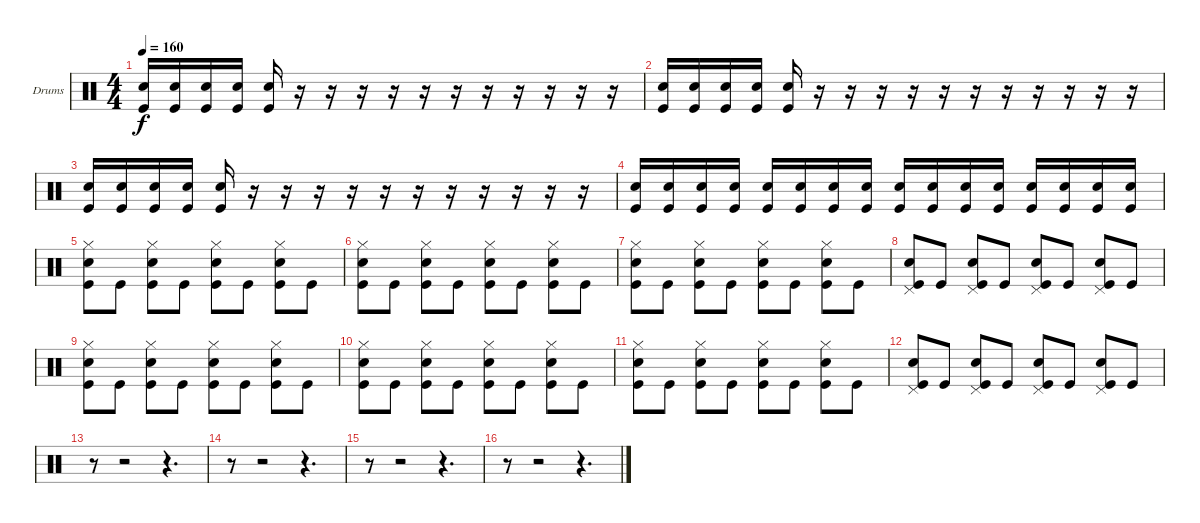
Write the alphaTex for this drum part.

\defaultSystemsLayout 4
\bracketExtendMode groupsimilarinstruments
\firstSystemTrackNameOrientation horizontal
\otherSystemsTrackNameOrientation horizontal
\track ("Drumkit" "Drums") {solo instrument percussion}
\staff {score}
\articulation defaults
\ts (4 4)
\tempo 160
\clef neutral
\scale
0.472222
\ks c
("Snare (hit) 2" "Kick (hit)").16{dy f} ("Snare (hit) 2" "Kick (hit)").16 ("Snare (hit) 2" "Kick (hit)").16 ("Snare (hit) 2" "Kick (hit)").16 ("Snare (hit) 2" "Kick (hit)").16 r.16 r.16 r.16 r.16 r.16 r.16 r.16 r.16 r.16 r.16 r.16 |
\scale
0.263889 ("Snare (hit) 2" "Kick (hit)").16 ("Snare (hit) 2" "Kick (hit)").16 ("Snare (hit) 2" "Kick (hit)").16 ("Snare (hit) 2" "Kick (hit)").16 ("Snare (hit) 2" "Kick (hit)").16 r.16 r.16 r.16 r.16 r.16 r.16 r.16 r.16 r.16 r.16 r.16 |
\scale
0.263889 ("Snare (hit) 2" "Kick (hit)").16 ("Snare (hit) 2" "Kick (hit)").16 ("Snare (hit) 2" "Kick (hit)").16 ("Snare (hit) 2" "Kick (hit)").16 ("Snare (hit) 2" "Kick (hit)").16 r.16 r.16 r.16 r.16 r.16 r.16 r.16 r.16 r.16 r.16 r.16 |
\scale
0.333333 ("Snare (hit) 2" "Kick (hit)").16 ("Snare (hit) 2" "Kick (hit)").16 ("Snare (hit) 2" "Kick (hit)").16 ("Snare (hit) 2" "Kick (hit)").16 ("Snare (hit) 2" "Kick (hit)").16 ("Snare (hit) 2" "Kick (hit)").16 ("Snare (hit) 2" "Kick (hit)").16 ("Snare (hit) 2" "Kick (hit)").16 ("Snare (hit) 2" "Kick (hit)").16 ("Snare (hit) 2" "Kick (hit)").16 ("Snare (hit) 2" "Kick (hit)").16 ("Snare (hit) 2" "Kick (hit)").16 ("Snare (hit) 2" "Kick (hit)").16 ("Snare (hit) 2" "Kick (hit)").16 ("Snare (hit) 2" "Kick (hit)").16 ("Snare (hit) 2" "Kick (hit)").16 |
\scale
0.333333 ("Hi-Hat (closed)" "Snare (hit) 2" "Kick (hit)").8 "Kick (hit)".8 ("Hi-Hat (closed)" "Snare (hit) 2" "Kick (hit)").8 "Kick (hit)".8 ("Hi-Hat (closed)" "Snare (hit) 2" "Kick (hit)").8 "Kick (hit)".8 ("Hi-Hat (closed)" "Snare (hit) 2" "Kick (hit)").8 "Kick (hit)".8 |
\scale
0.333333 ("Hi-Hat (closed)" "Snare (hit) 2" "Kick (hit)").8 "Kick (hit)".8 ("Hi-Hat (closed)" "Snare (hit) 2" "Kick (hit)").8 "Kick (hit)".8 ("Hi-Hat (closed)" "Snare (hit) 2" "Kick (hit)").8 "Kick (hit)".8 ("Hi-Hat (closed)" "Snare (hit) 2" "Kick (hit)").8 "Kick (hit)".8 |
\scale
0.333333 ("Hi-Hat (closed)" "Snare (hit) 2" "Kick (hit)").8 "Kick (hit)".8 ("Hi-Hat (closed)" "Snare (hit) 2" "Kick (hit)").8 "Kick (hit)".8 ("Hi-Hat (closed)" "Snare (hit) 2" "Kick (hit)").8 "Kick (hit)".8 ("Hi-Hat (closed)" "Snare (hit) 2" "Kick (hit)").8 "Kick (hit)".8 |
\scale
0.333333 ("Pedal Hi-Hat (hit)" "Snare (hit) 2" "Kick (hit)").8 "Kick (hit)".8 ("Pedal Hi-Hat (hit)" "Snare (hit) 2" "Kick (hit)").8 "Kick (hit)".8 ("Pedal Hi-Hat (hit)" "Snare (hit) 2" "Kick (hit)").8 "Kick (hit)".8 ("Pedal Hi-Hat (hit)" "Snare (hit) 2" "Kick (hit)").8 "Kick (hit)".8 |
\scale
0.333333 ("Hi-Hat (closed)" "Snare (hit) 2" "Kick (hit)").8 "Kick (hit)".8 ("Hi-Hat (closed)" "Snare (hit) 2" "Kick (hit)").8 "Kick (hit)".8 ("Hi-Hat (closed)" "Snare (hit) 2" "Kick (hit)").8 "Kick (hit)".8 ("Hi-Hat (closed)" "Snare (hit) 2" "Kick (hit)").8 "Kick (hit)".8 |
\scale
0.333333 ("Hi-Hat (closed)" "Snare (hit) 2" "Kick (hit)").8 "Kick (hit)".8 ("Hi-Hat (closed)" "Snare (hit) 2" "Kick (hit)").8 "Kick (hit)".8 ("Hi-Hat (closed)" "Snare (hit) 2" "Kick (hit)").8 "Kick (hit)".8 ("Hi-Hat (closed)" "Snare (hit) 2" "Kick (hit)").8 "Kick (hit)".8 |
\scale
0.333333 ("Hi-Hat (closed)" "Snare (hit) 2" "Kick (hit)").8 "Kick (hit)".8 ("Hi-Hat (closed)" "Snare (hit) 2" "Kick (hit)").8 "Kick (hit)".8 ("Hi-Hat (closed)" "Snare (hit) 2" "Kick (hit)").8 "Kick (hit)".8 ("Hi-Hat (closed)" "Snare (hit) 2" "Kick (hit)").8 "Kick (hit)".8 |
\scale
0.333333 ("Pedal Hi-Hat (hit)" "Snare (hit) 2" "Kick (hit)").8 "Kick (hit)".8 ("Pedal Hi-Hat (hit)" "Snare (hit) 2" "Kick (hit)").8 "Kick (hit)".8 ("Pedal Hi-Hat (hit)" "Snare (hit) 2" "Kick (hit)").8 "Kick (hit)".8 ("Pedal Hi-Hat (hit)" "Snare (hit) 2" "Kick (hit)").8 "Kick (hit)".8 |
\scale
0.333333 r.8 r.2 r.4{d} |
\scale
0.333333 r.8 r.2 r.4{d} |
\scale
0.333333 r.8 r.2 r.4{d} |
\scale
0.333333 r.8 r.2 r.4{d}
